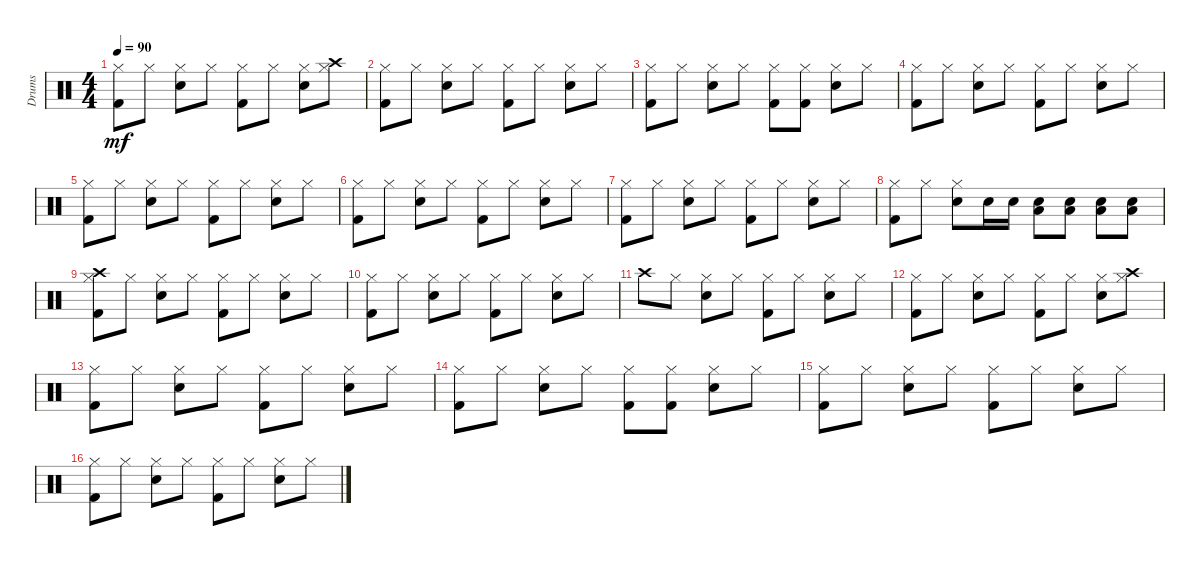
\track ("Drums" "Drums") {instrument percussion}
\staff {score}
\articulation defaults
\ts (4 4)
\tempo 90
\clef neutral
\ks c
("Hi-Hat (closed)" "Kick (hit) 2").8{dy mf} "Hi-Hat (closed)".8 ("Hi-Hat (closed)" "Snare (hit) 2").8 "Hi-Hat (closed)".8 ("Hi-Hat (closed)" "Kick (hit) 2").8 "Hi-Hat (closed)".8 ("Hi-Hat (closed)" "Snare (hit) 2").8 ("Hi-Hat (closed)" "Crash high (hit)").8 |
("Hi-Hat (closed)" "Kick (hit) 2").8 "Hi-Hat (closed)".8 ("Hi-Hat (closed)" "Snare (hit) 2").8 "Hi-Hat (closed)".8 ("Hi-Hat (closed)" "Kick (hit) 2").8 "Hi-Hat (closed)".8 ("Hi-Hat (closed)" "Snare (hit) 2").8 "Hi-Hat (closed)".8 |
("Hi-Hat (closed)" "Kick (hit) 2").8 "Hi-Hat (closed)".8 ("Hi-Hat (closed)" "Snare (hit) 2").8 "Hi-Hat (closed)".8 ("Hi-Hat (closed)" "Kick (hit) 2").8 ("Hi-Hat (closed)" "Kick (hit) 2").8 ("Hi-Hat (closed)" "Snare (hit) 2").8 "Hi-Hat (closed)".8 |
("Hi-Hat (closed)" "Kick (hit) 2").8 "Hi-Hat (closed)".8 ("Hi-Hat (closed)" "Snare (hit) 2").8 "Hi-Hat (closed)".8 ("Hi-Hat (closed)" "Kick (hit) 2").8 "Hi-Hat (closed)".8 ("Hi-Hat (closed)" "Snare (hit) 2").8 "Hi-Hat (closed)".8 |
("Hi-Hat (closed)" "Kick (hit) 2").8 "Hi-Hat (closed)".8 ("Hi-Hat (closed)" "Snare (hit) 2").8 "Hi-Hat (closed)".8 ("Hi-Hat (closed)" "Kick (hit) 2").8 "Hi-Hat (closed)".8 ("Hi-Hat (closed)" "Snare (hit) 2").8 "Hi-Hat (closed)".8 |
("Hi-Hat (closed)" "Kick (hit) 2").8 "Hi-Hat (closed)".8 ("Hi-Hat (closed)" "Snare (hit) 2").8 "Hi-Hat (closed)".8 ("Hi-Hat (closed)" "Kick (hit) 2").8 "Hi-Hat (closed)".8 ("Hi-Hat (closed)" "Snare (hit) 2").8 "Hi-Hat (closed)".8 |
("Hi-Hat (closed)" "Kick (hit) 2").8 "Hi-Hat (closed)".8 ("Hi-Hat (closed)" "Snare (hit) 2").8 "Hi-Hat (closed)".8 ("Hi-Hat (closed)" "Kick (hit) 2").8 "Hi-Hat (closed)".8 ("Hi-Hat (closed)" "Snare (hit) 2").8 "Hi-Hat (closed)".8 |
("Hi-Hat (closed)" "Kick (hit) 2").8 "Hi-Hat (closed)".8 ("Hi-Hat (closed)" "Snare (hit) 2").8 "Snare (hit) 2".16 "Snare (hit) 2".16 ("Snare (hit) 2" "Low Floor Tom (hit)").8 ("Snare (hit) 2" "Low Floor Tom (hit)").8 ("Snare (hit) 2" "Low Floor Tom (hit)").8 ("Snare (hit) 2" "Low Floor Tom (hit)").8 |
("Hi-Hat (closed)" "Crash high (hit)" "Kick (hit) 2").8 "Hi-Hat (closed)".8 ("Hi-Hat (closed)" "Snare (hit) 2").8 "Hi-Hat (closed)".8 ("Hi-Hat (closed)" "Kick (hit) 2").8 "Hi-Hat (closed)".8 ("Hi-Hat (closed)" "Snare (hit) 2").8 "Hi-Hat (closed)".8 |
("Hi-Hat (closed)" "Kick (hit) 2").8 "Hi-Hat (closed)".8 ("Hi-Hat (closed)" "Snare (hit) 2").8 "Hi-Hat (closed)".8 ("Hi-Hat (closed)" "Kick (hit) 2").8 "Hi-Hat (closed)".8 ("Hi-Hat (closed)" "Snare (hit) 2").8 "Hi-Hat (closed)".8 |
"Crash high (hit)".8 "Hi-Hat (closed)".8 ("Hi-Hat (closed)" "Snare (hit) 2").8 "Hi-Hat (closed)".8 ("Hi-Hat (closed)" "Kick (hit) 2").8 "Hi-Hat (closed)".8 ("Hi-Hat (closed)" "Snare (hit) 2").8 "Hi-Hat (closed)".8 |
("Hi-Hat (closed)" "Kick (hit) 2").8 "Hi-Hat (closed)".8 ("Hi-Hat (closed)" "Snare (hit) 2").8 "Hi-Hat (closed)".8 ("Hi-Hat (closed)" "Kick (hit) 2").8 "Hi-Hat (closed)".8 ("Hi-Hat (closed)" "Snare (hit) 2").8 ("Hi-Hat (closed)" "Crash high (hit)").8 |
("Hi-Hat (closed)" "Kick (hit) 2").8 "Hi-Hat (closed)".8 ("Hi-Hat (closed)" "Snare (hit) 2").8 "Hi-Hat (closed)".8 ("Hi-Hat (closed)" "Kick (hit) 2").8 "Hi-Hat (closed)".8 ("Hi-Hat (closed)" "Snare (hit) 2").8 "Hi-Hat (closed)".8 |
("Hi-Hat (closed)" "Kick (hit) 2").8 "Hi-Hat (closed)".8 ("Hi-Hat (closed)" "Snare (hit) 2").8 "Hi-Hat (closed)".8 ("Hi-Hat (closed)" "Kick (hit) 2").8 ("Hi-Hat (closed)" "Kick (hit) 2").8 ("Hi-Hat (closed)" "Snare (hit) 2").8 "Hi-Hat (closed)".8 |
("Hi-Hat (closed)" "Kick (hit) 2").8 "Hi-Hat (closed)".8 ("Hi-Hat (closed)" "Snare (hit) 2").8 "Hi-Hat (closed)".8 ("Hi-Hat (closed)" "Kick (hit) 2").8 "Hi-Hat (closed)".8 ("Hi-Hat (closed)" "Snare (hit) 2").8 "Hi-Hat (closed)".8 |
("Hi-Hat (closed)" "Kick (hit) 2").8 "Hi-Hat (closed)".8 ("Hi-Hat (closed)" "Snare (hit) 2").8 "Hi-Hat (closed)".8 ("Hi-Hat (closed)" "Kick (hit) 2").8 "Hi-Hat (closed)".8 ("Hi-Hat (closed)" "Snare (hit) 2").8 "Hi-Hat (closed)".8
